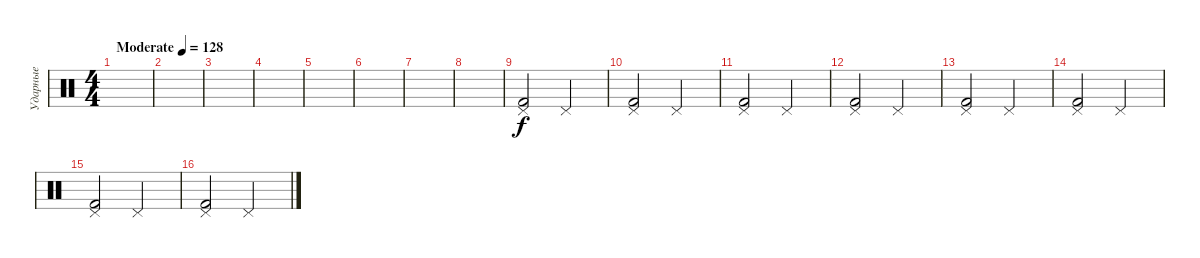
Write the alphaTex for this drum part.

\track ("Ударные" "Ударные") {instrument percussion}
\staff {score}
\articulation defaults
\ts (4 4)
\tempo (128 "Moderate")
\clef neutral
\ks c
|
|
|
|
|
|
|
|
("Pedal Hi-Hat (hit)" "Kick (hit) 2").2 "Pedal Hi-Hat (hit)".2 |
("Pedal Hi-Hat (hit)" "Kick (hit) 2").2 "Pedal Hi-Hat (hit)".2 |
("Pedal Hi-Hat (hit)" "Kick (hit) 2").2 "Pedal Hi-Hat (hit)".2 |
("Pedal Hi-Hat (hit)" "Kick (hit) 2").2 "Pedal Hi-Hat (hit)".2 |
("Pedal Hi-Hat (hit)" "Kick (hit) 2").2 "Pedal Hi-Hat (hit)".2 |
("Pedal Hi-Hat (hit)" "Kick (hit) 2").2 "Pedal Hi-Hat (hit)".2 |
("Pedal Hi-Hat (hit)" "Kick (hit) 2").2 "Pedal Hi-Hat (hit)".2 |
("Pedal Hi-Hat (hit)" "Kick (hit) 2").2 "Pedal Hi-Hat (hit)".2
